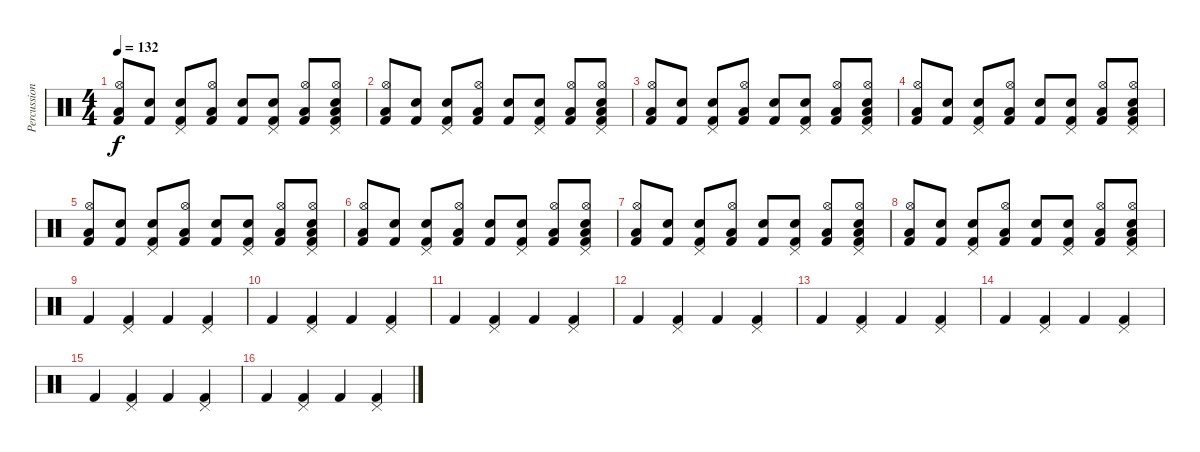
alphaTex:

\track ("Percussion" "Percussion") {instrument percussion}
\staff {score}
\articulation defaults
\ts (4 4)
\tempo 132
\clef neutral
\ks c
("Kick (hit) 2" "Hi-Hat (open)" "Low Floor Tom (hit)").8{dy f} ("Kick (hit) 2" "Snare (hit) 2").8 ("Kick (hit) 2" "Pedal Hi-Hat (hit)" "Snare (hit) 2").8 ("Kick (hit) 2" "Hi-Hat (open)" "Low Floor Tom (hit)").8 ("Kick (hit) 2" "Snare (hit) 2").8 ("Kick (hit) 2" "Pedal Hi-Hat (hit)" "Snare (hit) 2").8 ("Kick (hit) 2" "Hi-Hat (open)" "Low Floor Tom (hit)").8 ("Kick (hit) 2" "Pedal Hi-Hat (hit)" "Hi-Hat (open)" "Snare (hit) 2" "Low Floor Tom (hit)").8 |
("Kick (hit) 2" "Hi-Hat (open)" "Low Floor Tom (hit)").8 ("Kick (hit) 2" "Snare (hit) 2").8 ("Kick (hit) 2" "Pedal Hi-Hat (hit)" "Snare (hit) 2").8 ("Kick (hit) 2" "Hi-Hat (open)" "Low Floor Tom (hit)").8 ("Kick (hit) 2" "Snare (hit) 2").8 ("Kick (hit) 2" "Pedal Hi-Hat (hit)" "Snare (hit) 2").8 ("Kick (hit) 2" "Hi-Hat (open)" "Low Floor Tom (hit)").8 ("Kick (hit) 2" "Pedal Hi-Hat (hit)" "Hi-Hat (open)" "Snare (hit) 2" "Low Floor Tom (hit)").8 |
("Kick (hit) 2" "Hi-Hat (open)" "Low Floor Tom (hit)").8 ("Kick (hit) 2" "Snare (hit) 2").8 ("Kick (hit) 2" "Pedal Hi-Hat (hit)" "Snare (hit) 2").8 ("Kick (hit) 2" "Hi-Hat (open)" "Low Floor Tom (hit)").8 ("Kick (hit) 2" "Snare (hit) 2").8 ("Kick (hit) 2" "Pedal Hi-Hat (hit)" "Snare (hit) 2").8 ("Kick (hit) 2" "Hi-Hat (open)" "Low Floor Tom (hit)").8 ("Kick (hit) 2" "Pedal Hi-Hat (hit)" "Hi-Hat (open)" "Snare (hit) 2" "Low Floor Tom (hit)").8 |
("Kick (hit) 2" "Hi-Hat (open)" "Low Floor Tom (hit)").8 ("Kick (hit) 2" "Snare (hit) 2").8 ("Kick (hit) 2" "Pedal Hi-Hat (hit)" "Snare (hit) 2").8 ("Kick (hit) 2" "Hi-Hat (open)" "Low Floor Tom (hit)").8 ("Kick (hit) 2" "Snare (hit) 2").8 ("Kick (hit) 2" "Pedal Hi-Hat (hit)" "Snare (hit) 2").8 ("Kick (hit) 2" "Hi-Hat (open)" "Low Floor Tom (hit)").8 ("Kick (hit) 2" "Pedal Hi-Hat (hit)" "Hi-Hat (open)" "Snare (hit) 2" "Low Floor Tom (hit)").8 |
("Kick (hit) 2" "Hi-Hat (open)" "Low Floor Tom (hit)").8 ("Kick (hit) 2" "Snare (hit) 2").8 ("Kick (hit) 2" "Pedal Hi-Hat (hit)" "Snare (hit) 2").8 ("Kick (hit) 2" "Hi-Hat (open)" "Low Floor Tom (hit)").8 ("Kick (hit) 2" "Snare (hit) 2").8 ("Kick (hit) 2" "Pedal Hi-Hat (hit)" "Snare (hit) 2").8 ("Kick (hit) 2" "Hi-Hat (open)" "Low Floor Tom (hit)").8 ("Kick (hit) 2" "Pedal Hi-Hat (hit)" "Hi-Hat (open)" "Snare (hit) 2" "Low Floor Tom (hit)").8 |
("Kick (hit) 2" "Hi-Hat (open)" "Low Floor Tom (hit)").8 ("Kick (hit) 2" "Snare (hit) 2").8 ("Kick (hit) 2" "Pedal Hi-Hat (hit)" "Snare (hit) 2").8 ("Kick (hit) 2" "Hi-Hat (open)" "Low Floor Tom (hit)").8 ("Kick (hit) 2" "Snare (hit) 2").8 ("Kick (hit) 2" "Pedal Hi-Hat (hit)" "Snare (hit) 2").8 ("Kick (hit) 2" "Hi-Hat (open)" "Low Floor Tom (hit)").8 ("Kick (hit) 2" "Pedal Hi-Hat (hit)" "Hi-Hat (open)" "Snare (hit) 2" "Low Floor Tom (hit)").8 |
("Kick (hit) 2" "Hi-Hat (open)" "Low Floor Tom (hit)").8 ("Kick (hit) 2" "Snare (hit) 2").8 ("Kick (hit) 2" "Pedal Hi-Hat (hit)" "Snare (hit) 2").8 ("Kick (hit) 2" "Hi-Hat (open)" "Low Floor Tom (hit)").8 ("Kick (hit) 2" "Snare (hit) 2").8 ("Kick (hit) 2" "Pedal Hi-Hat (hit)" "Snare (hit) 2").8 ("Kick (hit) 2" "Hi-Hat (open)" "Low Floor Tom (hit)").8 ("Kick (hit) 2" "Pedal Hi-Hat (hit)" "Hi-Hat (open)" "Snare (hit) 2" "Low Floor Tom (hit)").8 |
("Kick (hit) 2" "Hi-Hat (open)" "Low Floor Tom (hit)").8 ("Kick (hit) 2" "Snare (hit) 2").8 ("Kick (hit) 2" "Pedal Hi-Hat (hit)" "Snare (hit) 2").8 ("Kick (hit) 2" "Hi-Hat (open)" "Low Floor Tom (hit)").8 ("Kick (hit) 2" "Snare (hit) 2").8 ("Kick (hit) 2" "Pedal Hi-Hat (hit)" "Snare (hit) 2").8 ("Kick (hit) 2" "Hi-Hat (open)" "Low Floor Tom (hit)").8 ("Kick (hit) 2" "Pedal Hi-Hat (hit)" "Hi-Hat (open)" "Snare (hit) 2" "Low Floor Tom (hit)").8 |
"Kick (hit) 2".4 ("Kick (hit) 2" "Pedal Hi-Hat (hit)").4 "Kick (hit) 2".4 ("Kick (hit) 2" "Pedal Hi-Hat (hit)").4 |
"Kick (hit) 2".4 ("Kick (hit) 2" "Pedal Hi-Hat (hit)").4 "Kick (hit) 2".4 ("Kick (hit) 2" "Pedal Hi-Hat (hit)").4 |
"Kick (hit) 2".4 ("Kick (hit) 2" "Pedal Hi-Hat (hit)").4 "Kick (hit) 2".4 ("Kick (hit) 2" "Pedal Hi-Hat (hit)").4 |
"Kick (hit) 2".4 ("Kick (hit) 2" "Pedal Hi-Hat (hit)").4 "Kick (hit) 2".4 ("Kick (hit) 2" "Pedal Hi-Hat (hit)").4 |
"Kick (hit) 2".4 ("Kick (hit) 2" "Pedal Hi-Hat (hit)").4 "Kick (hit) 2".4 ("Kick (hit) 2" "Pedal Hi-Hat (hit)").4 |
"Kick (hit) 2".4 ("Kick (hit) 2" "Pedal Hi-Hat (hit)").4 "Kick (hit) 2".4 ("Kick (hit) 2" "Pedal Hi-Hat (hit)").4 |
"Kick (hit) 2".4 ("Kick (hit) 2" "Pedal Hi-Hat (hit)").4 "Kick (hit) 2".4 ("Kick (hit) 2" "Pedal Hi-Hat (hit)").4 |
"Kick (hit) 2".4 ("Kick (hit) 2" "Pedal Hi-Hat (hit)").4 "Kick (hit) 2".4 ("Kick (hit) 2" "Pedal Hi-Hat (hit)").4
